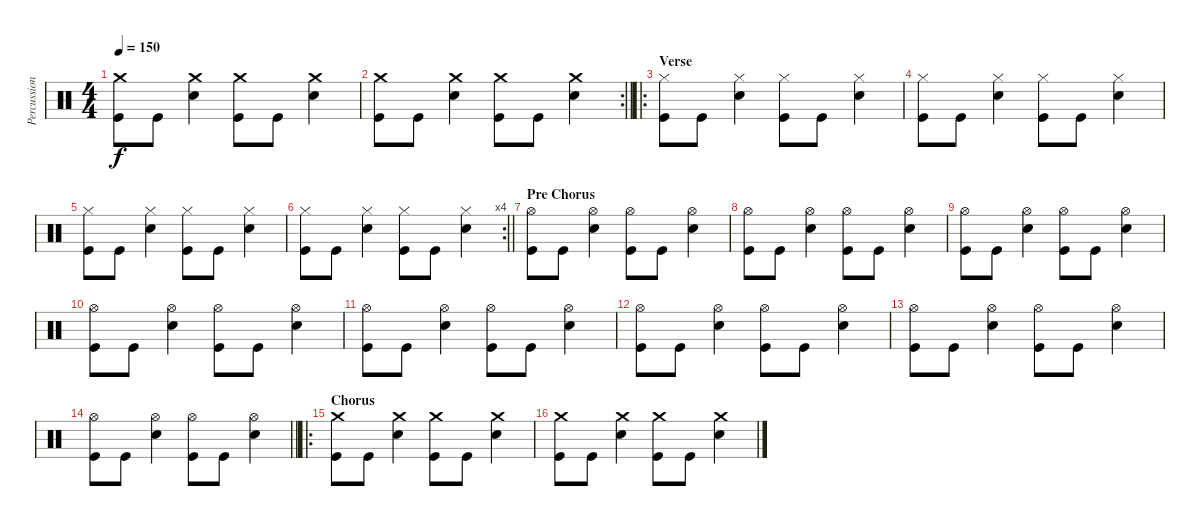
\track ("Percussion" "Percussion") {instrument percussion}
\staff {score}
\articulation defaults
\ts (4 4)
\tempo 150
\clef neutral
\ks c
("Crash medium (hit)" "Kick (hit)").8{dy f} "Kick (hit)".8 ("Crash medium (hit)" "Snare (hit) 2").4 ("Crash medium (hit)" "Kick (hit)").8 "Kick (hit)".8 ("Crash medium (hit)" "Snare (hit) 2").4 |
\rc 2
\barLineRight lightlight
("Crash medium (hit)" "Kick (hit)").8 "Kick (hit)".8 ("Crash medium (hit)" "Snare (hit) 2").4 ("Crash medium (hit)" "Kick (hit)").8 "Kick (hit)".8 ("Crash medium (hit)" "Snare (hit) 2").4 |
\ro
\section ("" "Verse")
("Hi-Hat (closed)" "Kick (hit)").8 "Kick (hit)".8 ("Hi-Hat (closed)" "Snare (hit) 2").4 ("Hi-Hat (closed)" "Kick (hit)").8 "Kick (hit)".8 ("Hi-Hat (closed)" "Snare (hit) 2").4 |
("Hi-Hat (closed)" "Kick (hit)").8 "Kick (hit)".8 ("Hi-Hat (closed)" "Snare (hit) 2").4 ("Hi-Hat (closed)" "Kick (hit)").8 "Kick (hit)".8 ("Hi-Hat (closed)" "Snare (hit) 2").4 |
("Hi-Hat (closed)" "Kick (hit)").8 "Kick (hit)".8 ("Hi-Hat (closed)" "Snare (hit) 2").4 ("Hi-Hat (closed)" "Kick (hit)").8 "Kick (hit)".8 ("Hi-Hat (closed)" "Snare (hit) 2").4 |
\rc 4
\barLineRight lightlight
("Hi-Hat (closed)" "Kick (hit)").8 "Kick (hit)".8 ("Hi-Hat (closed)" "Snare (hit) 2").4 ("Hi-Hat (closed)" "Kick (hit)").8 "Kick (hit)".8 ("Hi-Hat (closed)" "Snare (hit) 2").4 |
\section ("" "Pre Chorus")
("Hi-Hat (open)" "Kick (hit)").8 "Kick (hit)".8 ("Hi-Hat (open)" "Snare (hit) 2").4 ("Hi-Hat (open)" "Kick (hit)").8 "Kick (hit)".8 ("Hi-Hat (open)" "Snare (hit) 2").4 |
("Hi-Hat (open)" "Kick (hit)").8 "Kick (hit)".8 ("Hi-Hat (open)" "Snare (hit) 2").4 ("Hi-Hat (open)" "Kick (hit)").8 "Kick (hit)".8 ("Hi-Hat (open)" "Snare (hit) 2").4 |
("Hi-Hat (open)" "Kick (hit)").8 "Kick (hit)".8 ("Hi-Hat (open)" "Snare (hit) 2").4 ("Hi-Hat (open)" "Kick (hit)").8 "Kick (hit)".8 ("Hi-Hat (open)" "Snare (hit) 2").4 |
("Hi-Hat (open)" "Kick (hit)").8 "Kick (hit)".8 ("Hi-Hat (open)" "Snare (hit) 2").4 ("Hi-Hat (open)" "Kick (hit)").8 "Kick (hit)".8 ("Hi-Hat (open)" "Snare (hit) 2").4 |
("Hi-Hat (open)" "Kick (hit)").8 "Kick (hit)".8 ("Hi-Hat (open)" "Snare (hit) 2").4 ("Hi-Hat (open)" "Kick (hit)").8 "Kick (hit)".8 ("Hi-Hat (open)" "Snare (hit) 2").4 |
("Hi-Hat (open)" "Kick (hit)").8 "Kick (hit)".8 ("Hi-Hat (open)" "Snare (hit) 2").4 ("Hi-Hat (open)" "Kick (hit)").8 "Kick (hit)".8 ("Hi-Hat (open)" "Snare (hit) 2").4 |
("Hi-Hat (open)" "Kick (hit)").8 "Kick (hit)".8 ("Hi-Hat (open)" "Snare (hit) 2").4 ("Hi-Hat (open)" "Kick (hit)").8 "Kick (hit)".8 ("Hi-Hat (open)" "Snare (hit) 2").4 |
\barLineRight lightlight
("Hi-Hat (open)" "Kick (hit)").8 "Kick (hit)".8 ("Hi-Hat (open)" "Snare (hit) 2").4 ("Hi-Hat (open)" "Kick (hit)").8 "Kick (hit)".8 ("Hi-Hat (open)" "Snare (hit) 2").4 |
\ro
\section ("" "Chorus")
("Crash medium (hit)" "Kick (hit)").8 "Kick (hit)".8 ("Crash medium (hit)" "Snare (hit) 2").4 ("Crash medium (hit)" "Kick (hit)").8 "Kick (hit)".8 ("Crash medium (hit)" "Snare (hit) 2").4 |
("Crash medium (hit)" "Kick (hit)").8 "Kick (hit)".8 ("Crash medium (hit)" "Snare (hit) 2").4 ("Crash medium (hit)" "Kick (hit)").8 "Kick (hit)".8 ("Crash medium (hit)" "Snare (hit) 2").4
